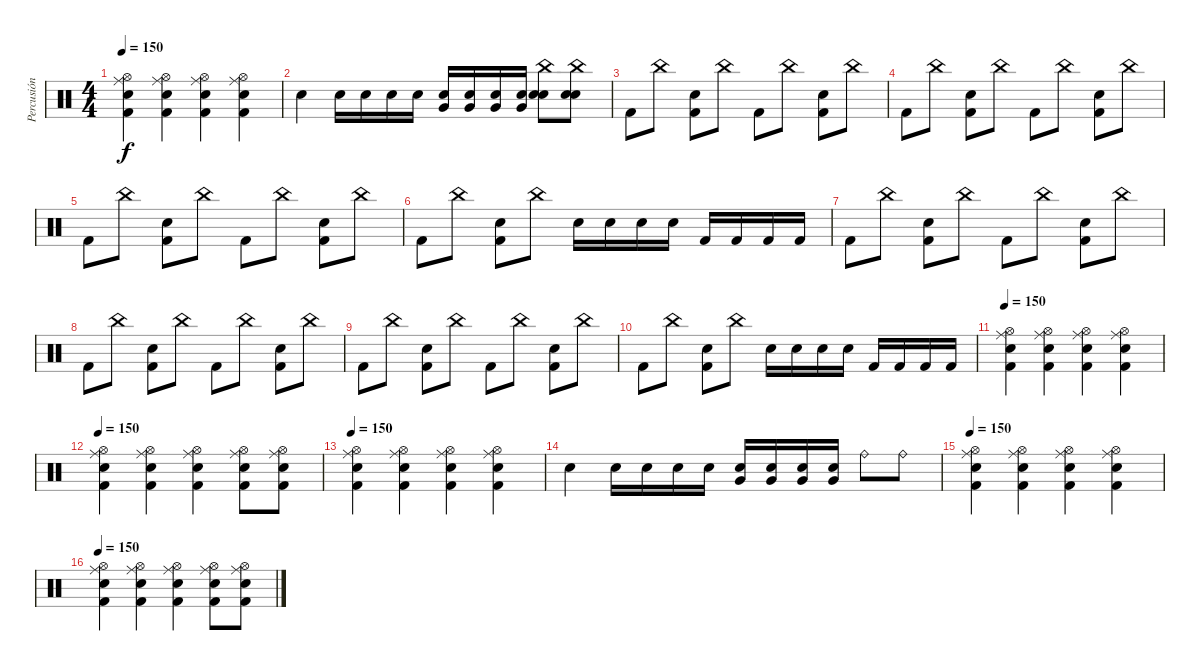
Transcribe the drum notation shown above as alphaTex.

\track ("Percusión" "Percusión") {instrument percussion}
\staff {score}
\articulation defaults
\ts (4 4)
\tempo 150
\clef neutral
\ks c
("Ride (middle)" "Hi-Hat (open)" "Electric Snare (hit)" "Kick (hit) 2").4{dy f} ("Ride (middle)" "Hi-Hat (open)" "Electric Snare (hit)" "Kick (hit) 2").4 ("Ride (middle)" "Hi-Hat (open)" "Electric Snare (hit)" "Kick (hit) 2").4 ("Ride (middle)" "Hi-Hat (open)" "Electric Snare (hit)" "Kick (hit) 2").4 |
"Electric Snare (hit)".4 "Electric Snare (hit)".16 "Electric Snare (hit)".16 "Electric Snare (hit)".16 "Electric Snare (hit)".16 ("Snare (hit) 2" "Very Low Tom (hit)").16 ("Snare (hit) 2" "Very Low Tom (hit)").16 ("Snare (hit) 2" "Very Low Tom (hit)").16 ("Snare (hit) 2" "Very Low Tom (hit)").16 ("China (hit)" "Electric Snare (hit)" "Snare (hit) 2").8 ("China (hit)" "Electric Snare (hit)" "Snare (hit) 2").8 |
"Kick (hit) 2".8 "China (hit)".8 ("Electric Snare (hit)" "Kick (hit) 2").8 "China (hit)".8 "Kick (hit) 2".8 "China (hit)".8 ("Electric Snare (hit)" "Kick (hit) 2").8 "China (hit)".8 |
"Kick (hit) 2".8 "China (hit)".8 ("Electric Snare (hit)" "Kick (hit) 2").8 "China (hit)".8 "Kick (hit) 2".8 "China (hit)".8 ("Electric Snare (hit)" "Kick (hit) 2").8 "China (hit)".8 |
"Kick (hit) 2".8 "China (hit)".8 ("Electric Snare (hit)" "Kick (hit) 2").8 "China (hit)".8 "Kick (hit) 2".8 "China (hit)".8 ("Electric Snare (hit)" "Kick (hit) 2").8 "China (hit)".8 |
"Kick (hit) 2".8 "China (hit)".8 ("Electric Snare (hit)" "Kick (hit) 2").8 "China (hit)".8 "Electric Snare (hit)".16 "Electric Snare (hit)".16 "Electric Snare (hit)".16 "Electric Snare (hit)".16 "Kick (hit) 2".16 "Kick (hit) 2".16 "Kick (hit) 2".16 "Kick (hit) 2".16 |
"Kick (hit) 2".8 "China (hit)".8 ("Electric Snare (hit)" "Kick (hit) 2").8 "China (hit)".8 "Kick (hit) 2".8 "China (hit)".8 ("Electric Snare (hit)" "Kick (hit) 2").8 "China (hit)".8 |
"Kick (hit) 2".8 "China (hit)".8 ("Electric Snare (hit)" "Kick (hit) 2").8 "China (hit)".8 "Kick (hit) 2".8 "China (hit)".8 ("Electric Snare (hit)" "Kick (hit) 2").8 "China (hit)".8 |
"Kick (hit) 2".8 "China (hit)".8 ("Electric Snare (hit)" "Kick (hit) 2").8 "China (hit)".8 "Kick (hit) 2".8 "China (hit)".8 ("Electric Snare (hit)" "Kick (hit) 2").8 "China (hit)".8 |
"Kick (hit) 2".8 "China (hit)".8 ("Electric Snare (hit)" "Kick (hit) 2").8 "China (hit)".8 "Electric Snare (hit)".16 "Electric Snare (hit)".16 "Electric Snare (hit)".16 "Electric Snare (hit)".16 "Kick (hit) 2".16 "Kick (hit) 2".16 "Kick (hit) 2".16 "Kick (hit) 2".16 |
\tempo 150
("Ride (middle)" "Hi-Hat (open)" "Electric Snare (hit)" "Kick (hit) 2").4 ("Ride (middle)" "Hi-Hat (open)" "Electric Snare (hit)" "Kick (hit) 2").4 ("Ride (middle)" "Hi-Hat (open)" "Electric Snare (hit)" "Kick (hit) 2").4 ("Ride (middle)" "Hi-Hat (open)" "Electric Snare (hit)" "Kick (hit) 2").4 |
\tempo 150
("Ride (middle)" "Hi-Hat (open)" "Electric Snare (hit)" "Kick (hit) 2").4 ("Ride (middle)" "Hi-Hat (open)" "Electric Snare (hit)" "Kick (hit) 2").4 ("Ride (middle)" "Hi-Hat (open)" "Electric Snare (hit)" "Kick (hit) 2").4 ("Ride (middle)" "Hi-Hat (open)" "Electric Snare (hit)" "Kick (hit) 2").8 ("Ride (middle)" "Hi-Hat (open)" "Electric Snare (hit)" "Kick (hit) 2").8 |
\tempo 150
("Ride (middle)" "Hi-Hat (open)" "Electric Snare (hit)" "Kick (hit) 2").4 ("Ride (middle)" "Hi-Hat (open)" "Electric Snare (hit)" "Kick (hit) 2").4 ("Ride (middle)" "Hi-Hat (open)" "Electric Snare (hit)" "Kick (hit) 2").4 ("Ride (middle)" "Hi-Hat (open)" "Electric Snare (hit)" "Kick (hit) 2").4 |
"Electric Snare (hit)".4 "Electric Snare (hit)".16 "Electric Snare (hit)".16 "Electric Snare (hit)".16 "Electric Snare (hit)".16 ("Snare (hit) 2" "Very Low Tom (hit)").16 ("Snare (hit) 2" "Very Low Tom (hit)").16 ("Snare (hit) 2" "Very Low Tom (hit)").16 ("Snare (hit) 2" "Very Low Tom (hit)").16 "Ride (bell)".8 "Ride (bell)".8 |
\tempo 150
("Ride (middle)" "Hi-Hat (open)" "Electric Snare (hit)" "Kick (hit) 2").4 ("Ride (middle)" "Hi-Hat (open)" "Electric Snare (hit)" "Kick (hit) 2").4 ("Ride (middle)" "Hi-Hat (open)" "Electric Snare (hit)" "Kick (hit) 2").4 ("Ride (middle)" "Hi-Hat (open)" "Electric Snare (hit)" "Kick (hit) 2").4 |
\tempo 150
("Ride (middle)" "Hi-Hat (open)" "Electric Snare (hit)" "Kick (hit) 2").4 ("Ride (middle)" "Hi-Hat (open)" "Electric Snare (hit)" "Kick (hit) 2").4 ("Ride (middle)" "Hi-Hat (open)" "Electric Snare (hit)" "Kick (hit) 2").4 ("Ride (middle)" "Hi-Hat (open)" "Electric Snare (hit)" "Kick (hit) 2").8 ("Ride (middle)" "Hi-Hat (open)" "Electric Snare (hit)" "Kick (hit) 2").8
